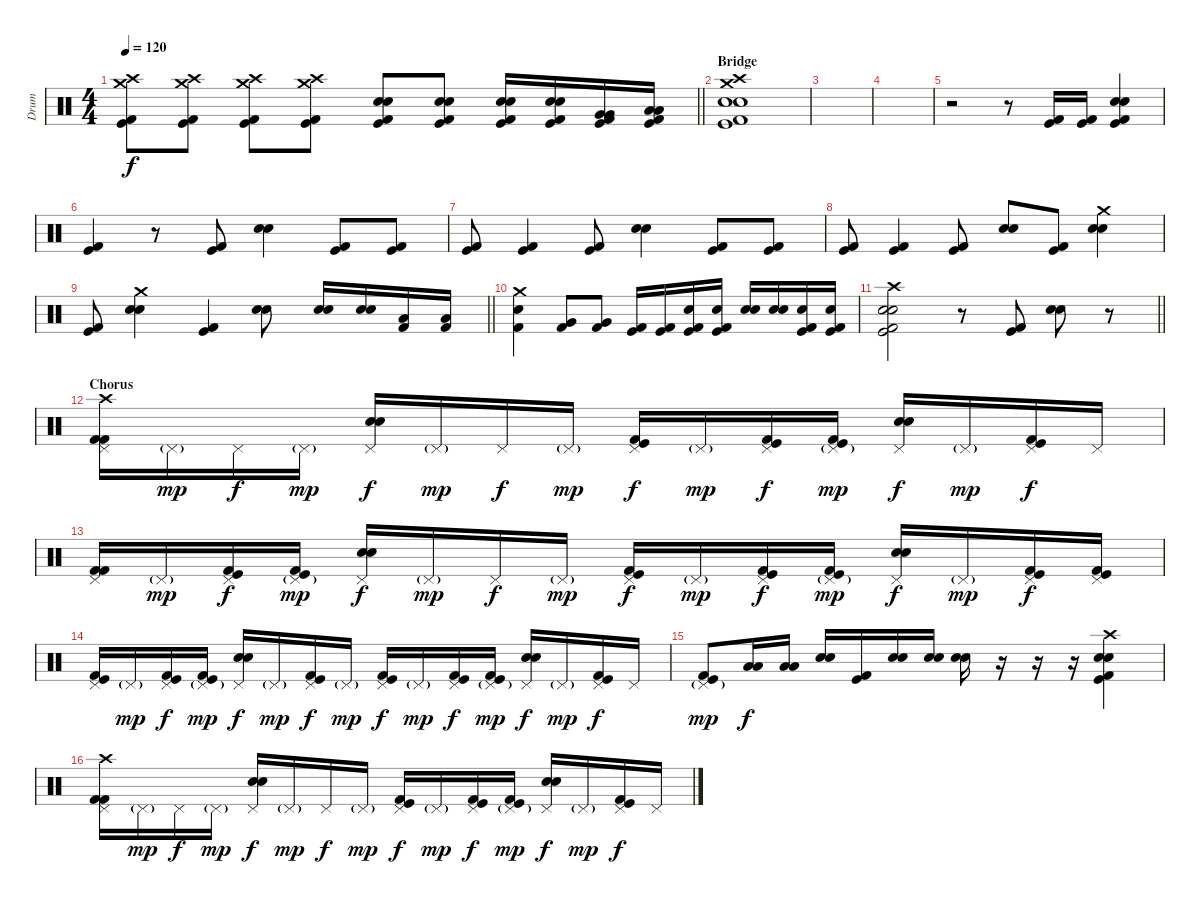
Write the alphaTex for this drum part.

\track ("Drum" "Drum") {instrument percussion}
\staff
\articulation defaults
\ts (4 4)
\tempo 120
\clef neutral
\barLineRight lightlight
\ks c
("Crash high (hit)" "Crash medium (hit)" "Kick (hit)" "Kick (hit) 2").8{dy f} ("Crash high (hit)" "Crash medium (hit)" "Kick (hit)" "Kick (hit) 2").8 ("Crash high (hit)" "Crash medium (hit)" "Kick (hit)" "Kick (hit) 2").8 ("Crash high (hit)" "Crash medium (hit)" "Kick (hit)" "Kick (hit) 2").8 ("Electric Snare (hit)" "Snare (hit) 2" "Kick (hit)" "Kick (hit) 2").8 ("Electric Snare (hit)" "Snare (hit) 2" "Kick (hit)" "Kick (hit) 2").8 ("Electric Snare (hit)" "Snare (hit) 2" "Kick (hit)" "Kick (hit) 2").16 ("Electric Snare (hit)" "Snare (hit) 2" "Kick (hit)" "Kick (hit) 2").16 ("Very Low Tom (hit)" "Very Low Tom (hit)" "Kick (hit)" "Kick (hit) 2").16 ("Low Floor Tom (hit)" "Low Floor Tom (hit)" "Kick (hit)" "Kick (hit) 2").16 |
\section ("" "Bridge")
("Crash medium (hit)" "Crash high (hit)" "Electric Snare (hit)" "Snare (hit) 2" "Kick (hit)" "Kick (hit) 2").1 |
|
|
r.2 r.8 ("Kick (hit) 2" "Kick (hit)").16 ("Kick (hit) 2" "Kick (hit)").16 ("Snare (hit) 2" "Electric Snare (hit)" "Kick (hit) 2" "Kick (hit)").4 |
("Kick (hit) 2" "Kick (hit)").4 r.8 ("Kick (hit) 2" "Kick (hit)").8 ("Electric Snare (hit)" "Snare (hit) 2").4 ("Kick (hit) 2" "Kick (hit)").8 ("Kick (hit) 2" "Kick (hit)").8 |
("Kick (hit) 2" "Kick (hit)").8 ("Kick (hit) 2" "Kick (hit)").4 ("Kick (hit) 2" "Kick (hit)").8 ("Electric Snare (hit)" "Snare (hit) 2").4 ("Kick (hit) 2" "Kick (hit)").8 ("Kick (hit) 2" "Kick (hit)").8 |
("Kick (hit) 2" "Kick (hit)").8 ("Kick (hit) 2" "Kick (hit)").4 ("Kick (hit) 2" "Kick (hit)").8 ("Electric Snare (hit)" "Snare (hit) 2").8 ("Kick (hit) 2" "Kick (hit)").8 ("Crash medium (hit)" "Electric Snare (hit)" "Snare (hit) 2").4 |
\barLineRight lightlight
("Kick (hit) 2" "Kick (hit)").8 ("Crash medium (hit)" "Electric Snare (hit)" "Snare (hit) 2").4 ("Kick (hit) 2" "Kick (hit)").4 ("Electric Snare (hit)" "Snare (hit) 2").8 ("Electric Snare (hit)" "Snare (hit) 2").16 ("Electric Snare (hit)" "Snare (hit) 2").16 ("Low Floor Tom (hit)" "Kick (hit) 2").16 ("Low Floor Tom (hit)" "Kick (hit) 2").16 |
("Crash medium (hit)" "Electric Snare (hit)" "Kick (hit) 2").4 ("Very Low Tom (hit)" "Kick (hit) 2").8 ("Very Low Tom (hit)" "Kick (hit) 2").8 ("Kick (hit) 2" "Kick (hit)").16 ("Kick (hit) 2" "Kick (hit)").16 ("Electric Snare (hit)" "Kick (hit) 2" "Kick (hit)").16 ("Electric Snare (hit)" "Kick (hit) 2" "Kick (hit)").16 ("Electric Snare (hit)" "Snare (hit) 2").16 ("Electric Snare (hit)" "Snare (hit) 2").16 ("Electric Snare (hit)" "Kick (hit) 2" "Kick (hit)").16 ("Electric Snare (hit)" "Kick (hit) 2" "Kick (hit)").16 |
\barLineRight lightlight
("Crash high (hit)" "Snare (hit) 2" "Electric Snare (hit)" "Kick (hit) 2" "Kick (hit)").2 r.8 ("Kick (hit) 2" "Kick (hit)").8 ("Electric Snare (hit)" "Snare (hit) 2").8{bd 120} r.8 |
\section ("" "Chorus")
("Crash high (hit)" "Pedal Hi-Hat (hit)" "Kick (hit) 2" "Kick (hit) 2").16 "Pedal Hi-Hat (hit)"{g}.16{dy mp} "Pedal Hi-Hat (hit)".16{dy f} "Pedal Hi-Hat (hit)"{g}.16{dy mp} ("Pedal Hi-Hat (hit)" "Electric Snare (hit)" "Snare (hit) 2").16{dy f} "Pedal Hi-Hat (hit)"{g}.16{dy mp} "Pedal Hi-Hat (hit)".16{dy f} "Pedal Hi-Hat (hit)"{g}.16{dy mp} ("Pedal Hi-Hat (hit)" "Kick (hit) 2" "Kick (hit)").16{dy f} "Pedal Hi-Hat (hit)"{g}.16{dy mp} ("Pedal Hi-Hat (hit)" "Kick (hit) 2" "Kick (hit)").16{dy f} ("Pedal Hi-Hat (hit)"{g} "Kick (hit) 2" "Kick (hit)").16{dy mp} ("Pedal Hi-Hat (hit)" "Electric Snare (hit)" "Snare (hit) 2").16{dy f} "Pedal Hi-Hat (hit)"{g}.16{dy mp} ("Pedal Hi-Hat (hit)" "Kick (hit) 2" "Kick (hit)").16{dy f} "Pedal Hi-Hat (hit)".16 |
("Pedal Hi-Hat (hit)" "Kick (hit) 2" "Kick (hit) 2").16 "Pedal Hi-Hat (hit)"{g}.16{dy mp} ("Pedal Hi-Hat (hit)" "Kick (hit) 2" "Kick (hit)").16{dy f} ("Pedal Hi-Hat (hit)"{g} "Kick (hit) 2" "Kick (hit)").16{dy mp} ("Pedal Hi-Hat (hit)" "Electric Snare (hit)" "Snare (hit) 2").16{dy f} "Pedal Hi-Hat (hit)"{g}.16{dy mp} "Pedal Hi-Hat (hit)".16{dy f} "Pedal Hi-Hat (hit)"{g}.16{dy mp} ("Pedal Hi-Hat (hit)" "Kick (hit) 2" "Kick (hit)").16{dy f} "Pedal Hi-Hat (hit)"{g}.16{dy mp} ("Pedal Hi-Hat (hit)" "Kick (hit) 2" "Kick (hit)").16{dy f} ("Pedal Hi-Hat (hit)"{g} "Kick (hit) 2" "Kick (hit)").16{dy mp} ("Pedal Hi-Hat (hit)" "Electric Snare (hit)" "Snare (hit) 2").16{dy f} "Pedal Hi-Hat (hit)"{g}.16{dy mp} ("Pedal Hi-Hat (hit)" "Kick (hit) 2" "Kick (hit)").16{dy f} ("Pedal Hi-Hat (hit)" "Kick (hit) 2" "Kick (hit)").16 |
("Pedal Hi-Hat (hit)" "Kick (hit) 2" "Kick (hit)").16 "Pedal Hi-Hat (hit)"{g}.16{dy mp} ("Pedal Hi-Hat (hit)" "Kick (hit) 2" "Kick (hit)").16{dy f} ("Pedal Hi-Hat (hit)"{g} "Kick (hit) 2" "Kick (hit)").16{dy mp} ("Pedal Hi-Hat (hit)" "Electric Snare (hit)" "Snare (hit) 2").16{dy f} "Pedal Hi-Hat (hit)"{g}.16{dy mp} ("Pedal Hi-Hat (hit)" "Kick (hit) 2" "Kick (hit)").16{dy f} "Pedal Hi-Hat (hit)"{g}.16{dy mp} ("Pedal Hi-Hat (hit)" "Kick (hit) 2" "Kick (hit)").16{dy f} "Pedal Hi-Hat (hit)"{g}.16{dy mp} ("Pedal Hi-Hat (hit)" "Kick (hit) 2" "Kick (hit)").16{dy f} ("Pedal Hi-Hat (hit)"{g} "Kick (hit) 2" "Kick (hit)").16{dy mp} ("Pedal Hi-Hat (hit)" "Electric Snare (hit)" "Snare (hit) 2").16{dy f} "Pedal Hi-Hat (hit)"{g}.16{dy mp} ("Pedal Hi-Hat (hit)" "Kick (hit) 2" "Kick (hit)").16{dy f} "Pedal Hi-Hat (hit)".16 |
("Pedal Hi-Hat (hit)"{g} "Kick (hit) 2" "Kick (hit)").8{dy mp} ("Low Floor Tom (hit)" "Low Floor Tom (hit)").16{dy f} ("Low Tom (hit)" "Low Tom (hit)").16 ("Snare (hit) 2" "Electric Snare (hit)").16 ("Kick (hit) 2" "Kick (hit)").16 ("Snare (hit) 2" "Electric Snare (hit)").16 ("Snare (hit) 2" "Electric Snare (hit)").16 ("Snare (hit) 2" "Electric Snare (hit)").16 r.16 r.16 r.16 ("Crash high (hit)" "Snare (hit) 2" "Electric Snare (hit)" "Kick (hit) 2" "Kick (hit)").4 |
("Crash high (hit)" "Pedal Hi-Hat (hit)" "Kick (hit) 2" "Kick (hit) 2").16 "Pedal Hi-Hat (hit)"{g}.16{dy mp} "Pedal Hi-Hat (hit)".16{dy f} "Pedal Hi-Hat (hit)"{g}.16{dy mp} ("Pedal Hi-Hat (hit)" "Electric Snare (hit)" "Snare (hit) 2").16{dy f} "Pedal Hi-Hat (hit)"{g}.16{dy mp} "Pedal Hi-Hat (hit)".16{dy f} "Pedal Hi-Hat (hit)"{g}.16{dy mp} ("Pedal Hi-Hat (hit)" "Kick (hit) 2" "Kick (hit)").16{dy f} "Pedal Hi-Hat (hit)"{g}.16{dy mp} ("Pedal Hi-Hat (hit)" "Kick (hit) 2" "Kick (hit)").16{dy f} ("Pedal Hi-Hat (hit)"{g} "Kick (hit) 2" "Kick (hit)").16{dy mp} ("Pedal Hi-Hat (hit)" "Electric Snare (hit)" "Snare (hit) 2").16{dy f} "Pedal Hi-Hat (hit)"{g}.16{dy mp} ("Pedal Hi-Hat (hit)" "Kick (hit) 2" "Kick (hit)").16{dy f} "Pedal Hi-Hat (hit)".16
